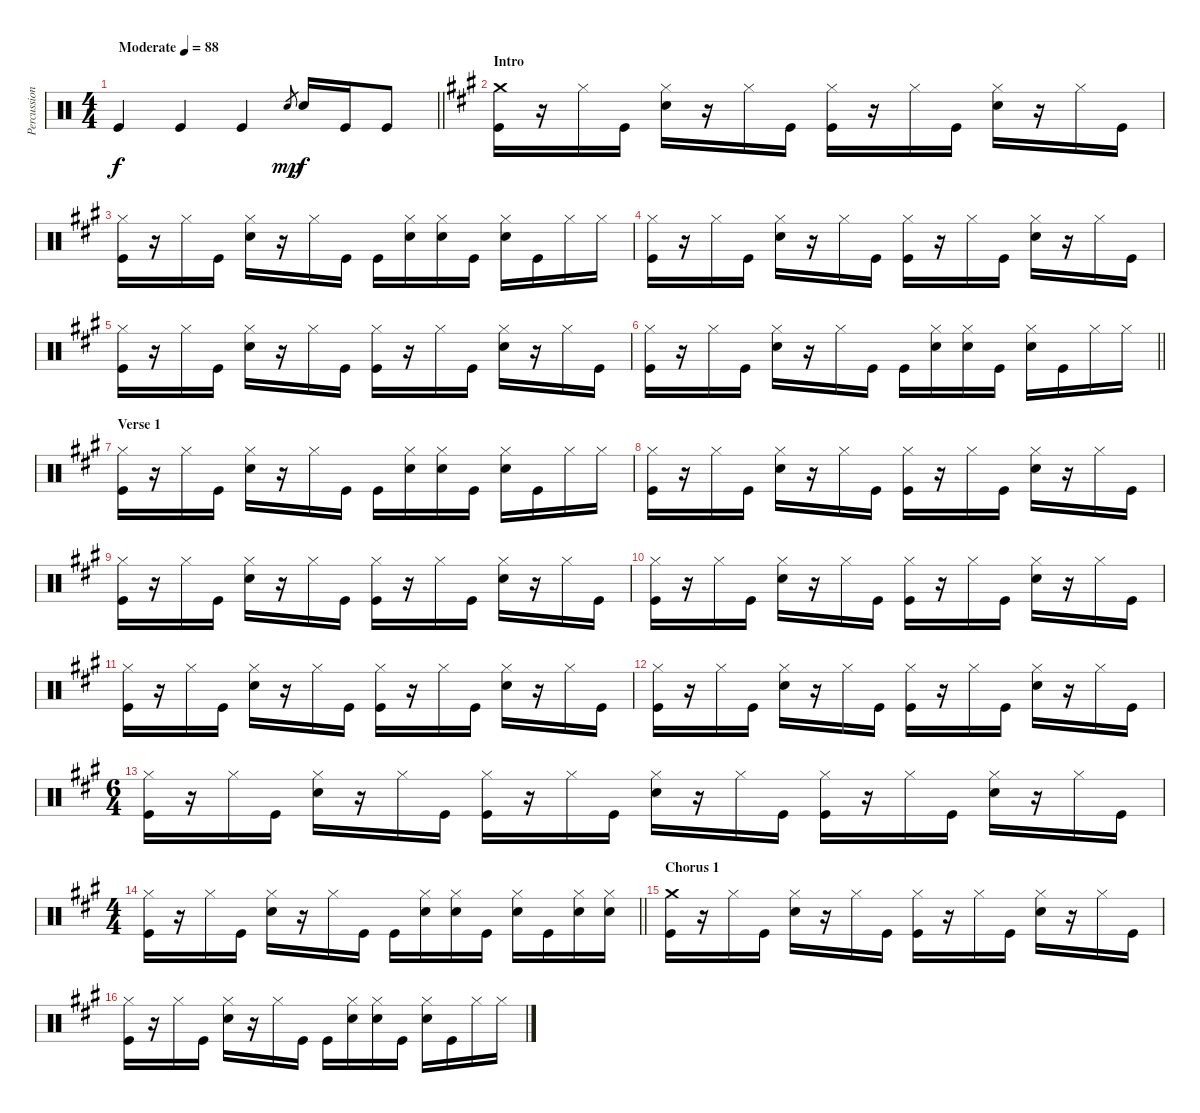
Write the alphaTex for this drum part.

\track ("Percussion" "Percussion") {instrument percussion}
\staff {score}
\articulation defaults
\ts (4 4)
\tempo (88 "Moderate")
\clef neutral
\barLineRight lightlight
\ks c "Kick (hit)".4{dy f} "Kick (hit)".4 "Kick (hit)".4 "Snare (hit) 2".8{gr dy mp} "Snare (hit) 2".16{dy f} "Kick (hit)".16 "Kick (hit)".8
|
\section ("" "Intro")
\ks a
("Crash medium (hit)" "Kick (hit)").16 r.16 "Hi-Hat (closed)".16 "Kick (hit)".16 ("Hi-Hat (closed)" "Snare (hit) 2").16 r.16 "Hi-Hat (closed)".16 "Kick (hit)".16 ("Hi-Hat (closed)" "Kick (hit)").16 r.16 "Hi-Hat (closed)".16 "Kick (hit)".16 ("Hi-Hat (closed)" "Snare (hit) 2").16 r.16 "Hi-Hat (closed)".16 "Kick (hit)".16 |
("Hi-Hat (closed)" "Kick (hit)").16 r.16 "Hi-Hat (closed)".16 "Kick (hit)".16 ("Hi-Hat (closed)" "Snare (hit) 2").16 r.16 "Hi-Hat (closed)".16 "Kick (hit)".16 "Kick (hit)".16 ("Hi-Hat (closed)" "Snare (hit) 2").16 ("Hi-Hat (closed)" "Snare (hit) 2").16 "Kick (hit)".16 ("Hi-Hat (closed)" "Snare (hit) 2").16 "Kick (hit)".16 "Hi-Hat (closed)".16 "Hi-Hat (closed)".16 |
("Hi-Hat (closed)" "Kick (hit)").16 r.16 "Hi-Hat (closed)".16 "Kick (hit)".16 ("Hi-Hat (closed)" "Snare (hit) 2").16 r.16 "Hi-Hat (closed)".16 "Kick (hit)".16 ("Hi-Hat (closed)" "Kick (hit)").16 r.16 "Hi-Hat (closed)".16 "Kick (hit)".16 ("Hi-Hat (closed)" "Snare (hit) 2").16 r.16 "Hi-Hat (closed)".16 "Kick (hit)".16 |
("Hi-Hat (closed)" "Kick (hit)").16 r.16 "Hi-Hat (closed)".16 "Kick (hit)".16 ("Hi-Hat (closed)" "Snare (hit) 2").16 r.16 "Hi-Hat (closed)".16 "Kick (hit)".16 ("Hi-Hat (closed)" "Kick (hit)").16 r.16 "Hi-Hat (closed)".16 "Kick (hit)".16 ("Hi-Hat (closed)" "Snare (hit) 2").16 r.16 "Hi-Hat (closed)".16 "Kick (hit)".16 |
\barLineRight lightlight
("Hi-Hat (closed)" "Kick (hit)").16 r.16 "Hi-Hat (closed)".16 "Kick (hit)".16 ("Hi-Hat (closed)" "Snare (hit) 2").16 r.16 "Hi-Hat (closed)".16 "Kick (hit)".16 "Kick (hit)".16 ("Hi-Hat (closed)" "Snare (hit) 2").16 ("Hi-Hat (closed)" "Snare (hit) 2").16 "Kick (hit)".16 ("Hi-Hat (closed)" "Snare (hit) 2").16 "Kick (hit)".16 "Hi-Hat (closed)".16 "Hi-Hat (closed)".16 |
\section ("" "Verse 1")
("Hi-Hat (closed)" "Kick (hit)").16 r.16 "Hi-Hat (closed)".16 "Kick (hit)".16 ("Hi-Hat (closed)" "Snare (hit) 2").16 r.16 "Hi-Hat (closed)".16 "Kick (hit)".16 "Kick (hit)".16 ("Hi-Hat (closed)" "Snare (hit) 2").16 ("Hi-Hat (closed)" "Snare (hit) 2").16 "Kick (hit)".16 ("Hi-Hat (closed)" "Snare (hit) 2").16 "Kick (hit)".16 "Hi-Hat (closed)".16 "Hi-Hat (closed)".16 |
("Hi-Hat (closed)" "Kick (hit)").16 r.16 "Hi-Hat (closed)".16 "Kick (hit)".16 ("Hi-Hat (closed)" "Snare (hit) 2").16 r.16 "Hi-Hat (closed)".16 "Kick (hit)".16 ("Hi-Hat (closed)" "Kick (hit)").16 r.16 "Hi-Hat (closed)".16 "Kick (hit)".16 ("Hi-Hat (closed)" "Snare (hit) 2").16 r.16 "Hi-Hat (closed)".16 "Kick (hit)".16 |
("Hi-Hat (closed)" "Kick (hit)").16 r.16 "Hi-Hat (closed)".16 "Kick (hit)".16 ("Hi-Hat (closed)" "Snare (hit) 2").16 r.16 "Hi-Hat (closed)".16 "Kick (hit)".16 ("Hi-Hat (closed)" "Kick (hit)").16 r.16 "Hi-Hat (closed)".16 "Kick (hit)".16 ("Hi-Hat (closed)" "Snare (hit) 2").16 r.16 "Hi-Hat (closed)".16 "Kick (hit)".16 |
("Hi-Hat (closed)" "Kick (hit)").16 r.16 "Hi-Hat (closed)".16 "Kick (hit)".16 ("Hi-Hat (closed)" "Snare (hit) 2").16 r.16 "Hi-Hat (closed)".16 "Kick (hit)".16 ("Hi-Hat (closed)" "Kick (hit)").16 r.16 "Hi-Hat (closed)".16 "Kick (hit)".16 ("Hi-Hat (closed)" "Snare (hit) 2").16 r.16 "Hi-Hat (closed)".16 "Kick (hit)".16 |
("Hi-Hat (closed)" "Kick (hit)").16 r.16 "Hi-Hat (closed)".16 "Kick (hit)".16 ("Hi-Hat (closed)" "Snare (hit) 2").16 r.16 "Hi-Hat (closed)".16 "Kick (hit)".16 ("Hi-Hat (closed)" "Kick (hit)").16 r.16 "Hi-Hat (closed)".16 "Kick (hit)".16 ("Hi-Hat (closed)" "Snare (hit) 2").16 r.16 "Hi-Hat (closed)".16 "Kick (hit)".16 |
("Hi-Hat (closed)" "Kick (hit)").16 r.16 "Hi-Hat (closed)".16 "Kick (hit)".16 ("Hi-Hat (closed)" "Snare (hit) 2").16 r.16 "Hi-Hat (closed)".16 "Kick (hit)".16 ("Hi-Hat (closed)" "Kick (hit)").16 r.16 "Hi-Hat (closed)".16 "Kick (hit)".16 ("Hi-Hat (closed)" "Snare (hit) 2").16 r.16 "Hi-Hat (closed)".16 "Kick (hit)".16 |
\ts (6 4)
("Hi-Hat (closed)" "Kick (hit)").16 r.16 "Hi-Hat (closed)".16 "Kick (hit)".16 ("Hi-Hat (closed)" "Snare (hit) 2").16 r.16 "Hi-Hat (closed)".16 "Kick (hit)".16 ("Hi-Hat (closed)" "Kick (hit)").16 r.16 "Hi-Hat (closed)".16 "Kick (hit)".16 ("Hi-Hat (closed)" "Snare (hit) 2").16 r.16 "Hi-Hat (closed)".16 "Kick (hit)".16 ("Hi-Hat (closed)" "Kick (hit)").16 r.16 "Hi-Hat (closed)".16 "Kick (hit)".16 ("Hi-Hat (closed)" "Snare (hit) 2").16 r.16 "Hi-Hat (closed)".16 "Kick (hit)".16 |
\ts (4 4)
\barLineRight lightlight
("Hi-Hat (closed)" "Kick (hit)").16 r.16 "Hi-Hat (closed)".16 "Kick (hit)".16 ("Hi-Hat (closed)" "Snare (hit) 2").16 r.16 "Hi-Hat (closed)".16 "Kick (hit)".16 "Kick (hit)".16 ("Hi-Hat (closed)" "Snare (hit) 2").16 ("Hi-Hat (closed)" "Snare (hit) 2").16 "Kick (hit)".16 ("Hi-Hat (closed)" "Snare (hit) 2").16 "Kick (hit)".16 ("Hi-Hat (closed)" "Snare (hit) 2").16 ("Hi-Hat (closed)" "Snare (hit) 2").16 |
\section ("" "Chorus 1")
("Crash medium (hit)" "Kick (hit)").16 r.16 "Hi-Hat (closed)".16 "Kick (hit)".16 ("Hi-Hat (closed)" "Snare (hit) 2").16 r.16 "Hi-Hat (closed)".16 "Kick (hit)".16 ("Hi-Hat (closed)" "Kick (hit)").16 r.16 "Hi-Hat (closed)".16 "Kick (hit)".16 ("Hi-Hat (closed)" "Snare (hit) 2").16 r.16 "Hi-Hat (closed)".16 "Kick (hit)".16 |
("Hi-Hat (closed)" "Kick (hit)").16 r.16 "Hi-Hat (closed)".16 "Kick (hit)".16 ("Hi-Hat (closed)" "Snare (hit) 2").16 r.16 "Hi-Hat (closed)".16 "Kick (hit)".16 "Kick (hit)".16 ("Hi-Hat (closed)" "Snare (hit) 2").16 ("Hi-Hat (closed)" "Snare (hit) 2").16 "Kick (hit)".16 ("Hi-Hat (closed)" "Snare (hit) 2").16 "Kick (hit)".16 "Hi-Hat (closed)".16 "Hi-Hat (closed)".16
